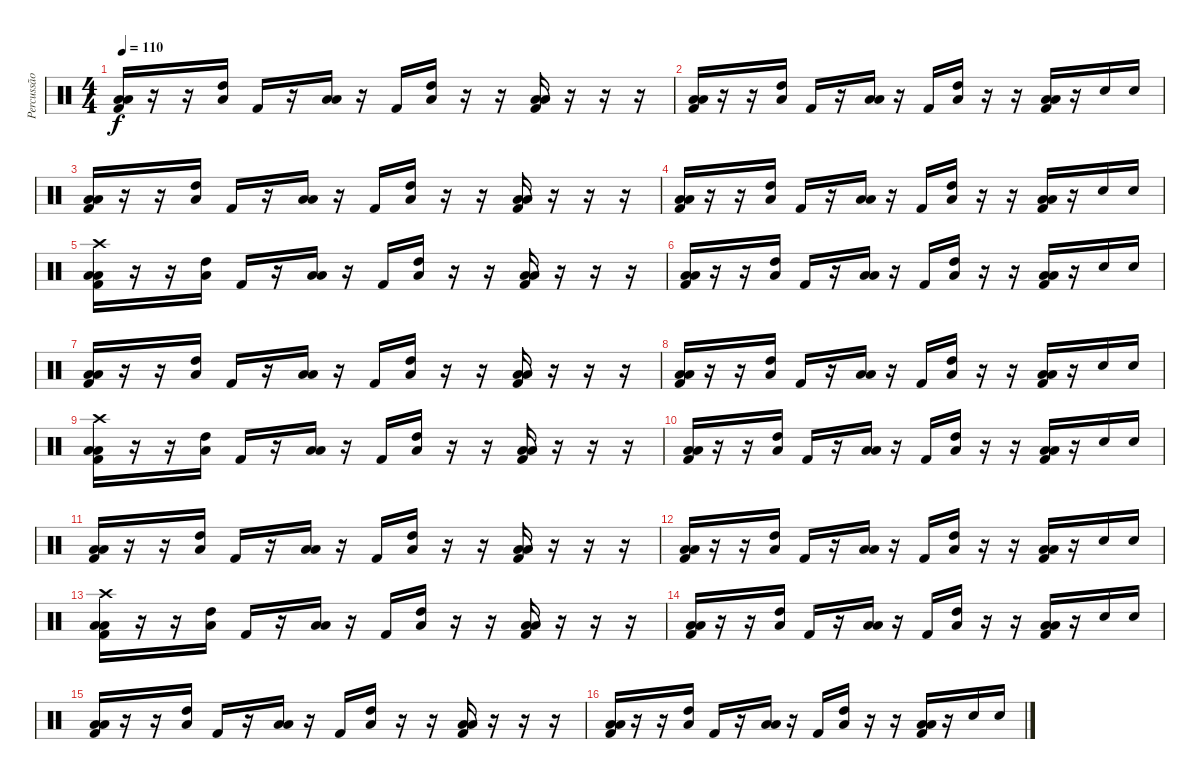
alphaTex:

\track ("Percussão" "Percussão") {instrument percussion}
\staff {score}
\articulation defaults
\ts (4 4)
\tempo 110
\clef neutral
\ks c
("Low Tom (hit)" "Low Floor Tom (hit)" "Kick (hit) 2").16{dy f} r.16 r.16 ("Low Tom (hit)" "High Tom (hit)").16 "Kick (hit) 2".16 r.16 ("Low Tom (hit)" "Low Floor Tom (hit)").16 r.16 "Kick (hit) 2".16 ("Low Tom (hit)" "High Tom (hit)").16 r.16 r.16 ("Low Tom (hit)" "Low Floor Tom (hit)" "Kick (hit) 2").16 r.16 r.16 r.16 |
("Low Tom (hit)" "Low Floor Tom (hit)" "Kick (hit) 2").16 r.16 r.16 ("Low Tom (hit)" "High Tom (hit)").16 "Kick (hit) 2".16 r.16 ("Low Tom (hit)" "Low Floor Tom (hit)").16 r.16 "Kick (hit) 2".16 ("Low Tom (hit)" "High Tom (hit)").16 r.16 r.16 ("Low Tom (hit)" "Low Floor Tom (hit)" "Kick (hit) 2").16 r.16 "Electric Snare (hit)".16 "Electric Snare (hit)".16 |
("Low Tom (hit)" "Low Floor Tom (hit)" "Kick (hit) 2").16 r.16 r.16 ("Low Tom (hit)" "High Tom (hit)").16 "Kick (hit) 2".16 r.16 ("Low Tom (hit)" "Low Floor Tom (hit)").16 r.16 "Kick (hit) 2".16 ("Low Tom (hit)" "High Tom (hit)").16 r.16 r.16 ("Low Tom (hit)" "Low Floor Tom (hit)" "Kick (hit) 2").16 r.16 r.16 r.16 |
("Low Tom (hit)" "Low Floor Tom (hit)" "Kick (hit) 2").16 r.16 r.16 ("Low Tom (hit)" "High Tom (hit)").16 "Kick (hit) 2".16 r.16 ("Low Tom (hit)" "Low Floor Tom (hit)").16 r.16 "Kick (hit) 2".16 ("Low Tom (hit)" "High Tom (hit)").16 r.16 r.16 ("Low Tom (hit)" "Low Floor Tom (hit)" "Kick (hit) 2").16 r.16 "Electric Snare (hit)".16 "Electric Snare (hit)".16 |
("Crash high (hit)" "Low Tom (hit)" "Low Floor Tom (hit)" "Kick (hit) 2").16 r.16 r.16 ("Low Tom (hit)" "High Tom (hit)").16 "Kick (hit) 2".16 r.16 ("Low Tom (hit)" "Low Floor Tom (hit)").16 r.16 "Kick (hit) 2".16 ("Low Tom (hit)" "High Tom (hit)").16 r.16 r.16 ("Low Tom (hit)" "Low Floor Tom (hit)" "Kick (hit) 2").16 r.16 r.16 r.16 |
("Low Tom (hit)" "Low Floor Tom (hit)" "Kick (hit) 2").16 r.16 r.16 ("Low Tom (hit)" "High Tom (hit)").16 "Kick (hit) 2".16 r.16 ("Low Tom (hit)" "Low Floor Tom (hit)").16 r.16 "Kick (hit) 2".16 ("Low Tom (hit)" "High Tom (hit)").16 r.16 r.16 ("Low Tom (hit)" "Low Floor Tom (hit)" "Kick (hit) 2").16 r.16 "Electric Snare (hit)".16 "Electric Snare (hit)".16 |
("Low Tom (hit)" "Low Floor Tom (hit)" "Kick (hit) 2").16 r.16 r.16 ("Low Tom (hit)" "High Tom (hit)").16 "Kick (hit) 2".16 r.16 ("Low Tom (hit)" "Low Floor Tom (hit)").16 r.16 "Kick (hit) 2".16 ("Low Tom (hit)" "High Tom (hit)").16 r.16 r.16 ("Low Tom (hit)" "Low Floor Tom (hit)" "Kick (hit) 2").16 r.16 r.16 r.16 |
("Low Tom (hit)" "Low Floor Tom (hit)" "Kick (hit) 2").16 r.16 r.16 ("Low Tom (hit)" "High Tom (hit)").16 "Kick (hit) 2".16 r.16 ("Low Tom (hit)" "Low Floor Tom (hit)").16 r.16 "Kick (hit) 2".16 ("Low Tom (hit)" "High Tom (hit)").16 r.16 r.16 ("Low Tom (hit)" "Low Floor Tom (hit)" "Kick (hit) 2").16 r.16 "Electric Snare (hit)".16 "Electric Snare (hit)".16 |
("Crash high (hit)" "Low Tom (hit)" "Low Floor Tom (hit)" "Kick (hit) 2").16 r.16 r.16 ("Low Tom (hit)" "High Tom (hit)").16 "Kick (hit) 2".16 r.16 ("Low Tom (hit)" "Low Floor Tom (hit)").16 r.16 "Kick (hit) 2".16 ("Low Tom (hit)" "High Tom (hit)").16 r.16 r.16 ("Low Tom (hit)" "Low Floor Tom (hit)" "Kick (hit) 2").16 r.16 r.16 r.16 |
("Low Tom (hit)" "Low Floor Tom (hit)" "Kick (hit) 2").16 r.16 r.16 ("Low Tom (hit)" "High Tom (hit)").16 "Kick (hit) 2".16 r.16 ("Low Tom (hit)" "Low Floor Tom (hit)").16 r.16 "Kick (hit) 2".16 ("Low Tom (hit)" "High Tom (hit)").16 r.16 r.16 ("Low Tom (hit)" "Low Floor Tom (hit)" "Kick (hit) 2").16 r.16 "Electric Snare (hit)".16 "Electric Snare (hit)".16 |
("Low Tom (hit)" "Low Floor Tom (hit)" "Kick (hit) 2").16 r.16 r.16 ("Low Tom (hit)" "High Tom (hit)").16 "Kick (hit) 2".16 r.16 ("Low Tom (hit)" "Low Floor Tom (hit)").16 r.16 "Kick (hit) 2".16 ("Low Tom (hit)" "High Tom (hit)").16 r.16 r.16 ("Low Tom (hit)" "Low Floor Tom (hit)" "Kick (hit) 2").16 r.16 r.16 r.16 |
("Low Tom (hit)" "Low Floor Tom (hit)" "Kick (hit) 2").16 r.16 r.16 ("Low Tom (hit)" "High Tom (hit)").16 "Kick (hit) 2".16 r.16 ("Low Tom (hit)" "Low Floor Tom (hit)").16 r.16 "Kick (hit) 2".16 ("Low Tom (hit)" "High Tom (hit)").16 r.16 r.16 ("Low Tom (hit)" "Low Floor Tom (hit)" "Kick (hit) 2").16 r.16 "Electric Snare (hit)".16 "Electric Snare (hit)".16 |
("Crash high (hit)" "Low Tom (hit)" "Low Floor Tom (hit)" "Kick (hit) 2").16 r.16 r.16 ("Low Tom (hit)" "High Tom (hit)").16 "Kick (hit) 2".16 r.16 ("Low Tom (hit)" "Low Floor Tom (hit)").16 r.16 "Kick (hit) 2".16 ("Low Tom (hit)" "High Tom (hit)").16 r.16 r.16 ("Low Tom (hit)" "Low Floor Tom (hit)" "Kick (hit) 2").16 r.16 r.16 r.16 |
("Low Tom (hit)" "Low Floor Tom (hit)" "Kick (hit) 2").16 r.16 r.16 ("Low Tom (hit)" "High Tom (hit)").16 "Kick (hit) 2".16 r.16 ("Low Tom (hit)" "Low Floor Tom (hit)").16 r.16 "Kick (hit) 2".16 ("Low Tom (hit)" "High Tom (hit)").16 r.16 r.16 ("Low Tom (hit)" "Low Floor Tom (hit)" "Kick (hit) 2").16 r.16 "Electric Snare (hit)".16 "Electric Snare (hit)".16 |
("Low Tom (hit)" "Low Floor Tom (hit)" "Kick (hit) 2").16 r.16 r.16 ("Low Tom (hit)" "High Tom (hit)").16 "Kick (hit) 2".16 r.16 ("Low Tom (hit)" "Low Floor Tom (hit)").16 r.16 "Kick (hit) 2".16 ("Low Tom (hit)" "High Tom (hit)").16 r.16 r.16 ("Low Tom (hit)" "Low Floor Tom (hit)" "Kick (hit) 2").16 r.16 r.16 r.16 |
("Low Tom (hit)" "Low Floor Tom (hit)" "Kick (hit) 2").16 r.16 r.16 ("Low Tom (hit)" "High Tom (hit)").16 "Kick (hit) 2".16 r.16 ("Low Tom (hit)" "Low Floor Tom (hit)").16 r.16 "Kick (hit) 2".16 ("Low Tom (hit)" "High Tom (hit)").16 r.16 r.16 ("Low Tom (hit)" "Low Floor Tom (hit)" "Kick (hit) 2").16 r.16 "Electric Snare (hit)".16 "Electric Snare (hit)".16
